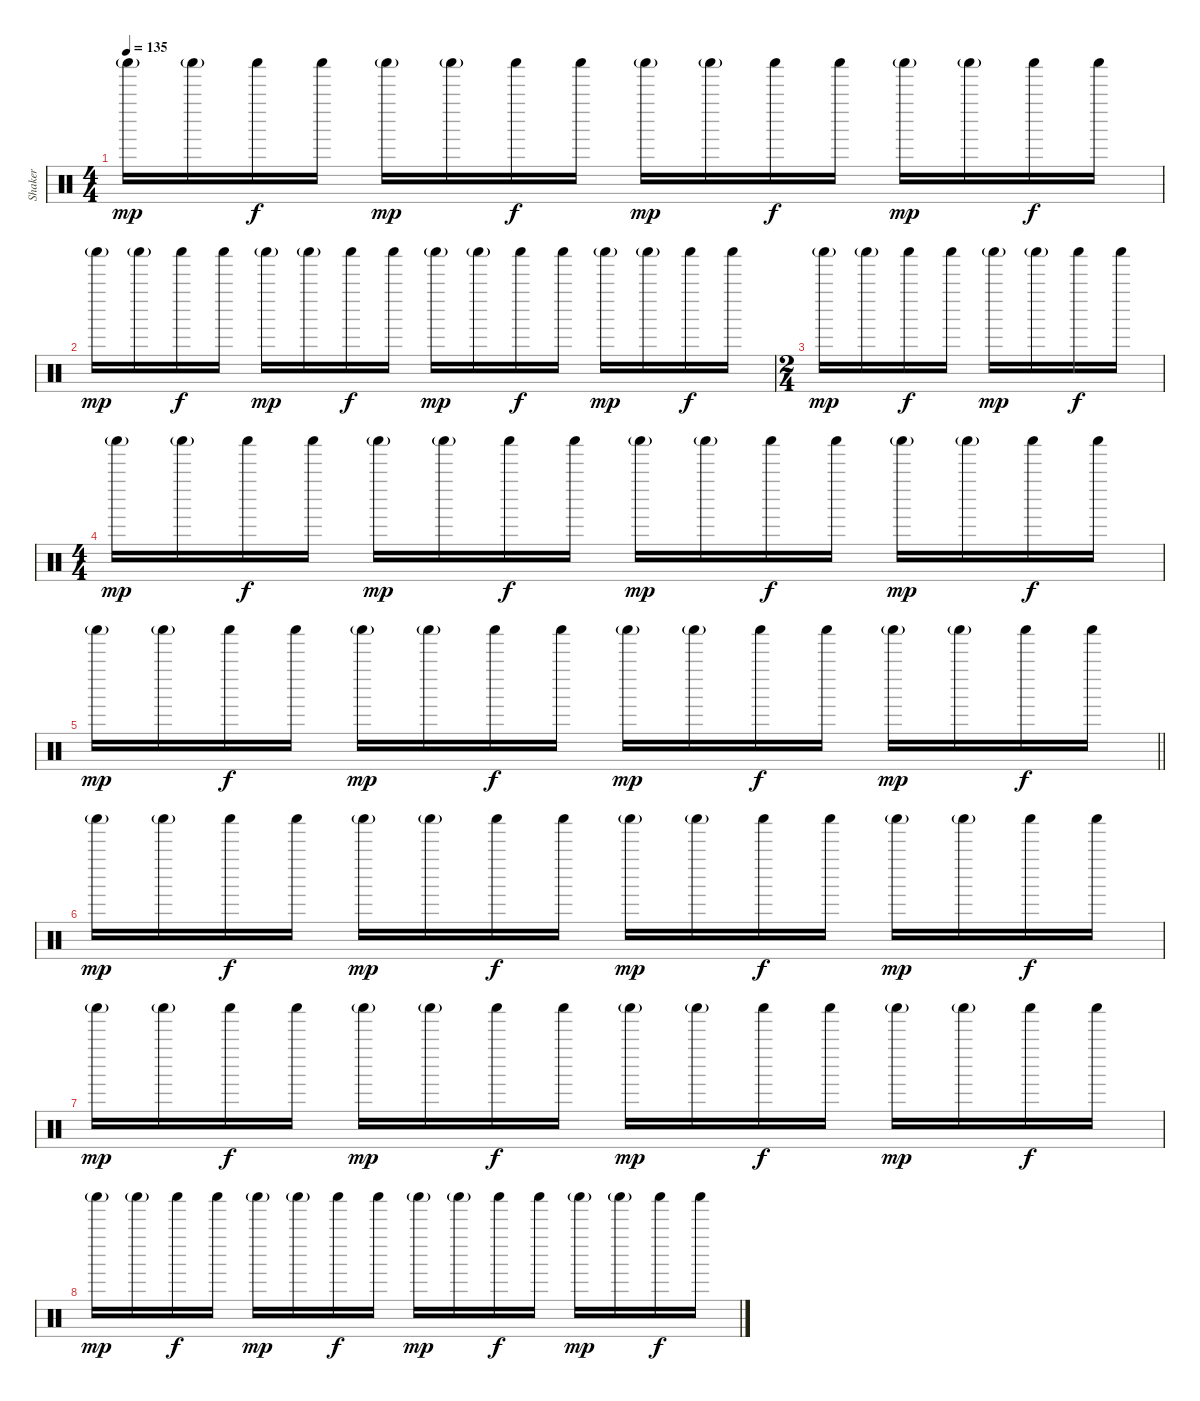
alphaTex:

\track ("Shaker" "Shaker") {instrument percussion}
\staff {score}
\articulation defaults
\ts (4 4)
\tempo 135
\clef neutral
\ks c "Shaker (hit)"{g}.16{dy mp} "Shaker (hit)"{g}.16 "Shaker (hit)".16{dy f} "Shaker (hit)".16 "Shaker (hit)"{g}.16{dy mp} "Shaker (hit)"{g}.16 "Shaker (hit)".16{dy f} "Shaker (hit)".16 "Shaker (hit)"{g}.16{dy mp} "Shaker (hit)"{g}.16 "Shaker (hit)".16{dy f} "Shaker (hit)".16 "Shaker (hit)"{g}.16{dy mp} "Shaker (hit)"{g}.16 "Shaker (hit)".16{dy f} "Shaker (hit)".16
|
"Shaker (hit)"{g}.16{dy mp} "Shaker (hit)"{g}.16 "Shaker (hit)".16{dy f} "Shaker (hit)".16 "Shaker (hit)"{g}.16{dy mp} "Shaker (hit)"{g}.16 "Shaker (hit)".16{dy f} "Shaker (hit)".16 "Shaker (hit)"{g}.16{dy mp} "Shaker (hit)"{g}.16 "Shaker (hit)".16{dy f} "Shaker (hit)".16 "Shaker (hit)"{g}.16{dy mp} "Shaker (hit)"{g}.16 "Shaker (hit)".16{dy f} "Shaker (hit)".16 |
\ts (2 4)
"Shaker (hit)"{g}.16{dy mp} "Shaker (hit)"{g}.16 "Shaker (hit)".16{dy f} "Shaker (hit)".16 "Shaker (hit)"{g}.16{dy mp} "Shaker (hit)"{g}.16 "Shaker (hit)".16{dy f} "Shaker (hit)".16 |
\ts (4 4)
"Shaker (hit)"{g}.16{dy mp} "Shaker (hit)"{g}.16 "Shaker (hit)".16{dy f} "Shaker (hit)".16 "Shaker (hit)"{g}.16{dy mp} "Shaker (hit)"{g}.16 "Shaker (hit)".16{dy f} "Shaker (hit)".16 "Shaker (hit)"{g}.16{dy mp} "Shaker (hit)"{g}.16 "Shaker (hit)".16{dy f} "Shaker (hit)".16 "Shaker (hit)"{g}.16{dy mp} "Shaker (hit)"{g}.16 "Shaker (hit)".16{dy f} "Shaker (hit)".16 |
\barLineRight lightlight "Shaker (hit)"{g}.16{dy mp} "Shaker (hit)"{g}.16 "Shaker (hit)".16{dy f} "Shaker (hit)".16 "Shaker (hit)"{g}.16{dy mp} "Shaker (hit)"{g}.16 "Shaker (hit)".16{dy f} "Shaker (hit)".16 "Shaker (hit)"{g}.16{dy mp} "Shaker (hit)"{g}.16 "Shaker (hit)".16{dy f} "Shaker (hit)".16 "Shaker (hit)"{g}.16{dy mp} "Shaker (hit)"{g}.16 "Shaker (hit)".16{dy f} "Shaker (hit)".16
|
"Shaker (hit)"{g}.16{dy mp} "Shaker (hit)"{g}.16 "Shaker (hit)".16{dy f} "Shaker (hit)".16 "Shaker (hit)"{g}.16{dy mp} "Shaker (hit)"{g}.16 "Shaker (hit)".16{dy f} "Shaker (hit)".16 "Shaker (hit)"{g}.16{dy mp} "Shaker (hit)"{g}.16 "Shaker (hit)".16{dy f} "Shaker (hit)".16 "Shaker (hit)"{g}.16{dy mp} "Shaker (hit)"{g}.16 "Shaker (hit)".16{dy f} "Shaker (hit)".16 |
"Shaker (hit)"{g}.16{dy mp} "Shaker (hit)"{g}.16 "Shaker (hit)".16{dy f} "Shaker (hit)".16 "Shaker (hit)"{g}.16{dy mp} "Shaker (hit)"{g}.16 "Shaker (hit)".16{dy f} "Shaker (hit)".16 "Shaker (hit)"{g}.16{dy mp} "Shaker (hit)"{g}.16 "Shaker (hit)".16{dy f} "Shaker (hit)".16 "Shaker (hit)"{g}.16{dy mp} "Shaker (hit)"{g}.16 "Shaker (hit)".16{dy f} "Shaker (hit)".16 |
"Shaker (hit)"{g}.16{dy mp} "Shaker (hit)"{g}.16 "Shaker (hit)".16{dy f} "Shaker (hit)".16 "Shaker (hit)"{g}.16{dy mp} "Shaker (hit)"{g}.16 "Shaker (hit)".16{dy f} "Shaker (hit)".16 "Shaker (hit)"{g}.16{dy mp} "Shaker (hit)"{g}.16 "Shaker (hit)".16{dy f} "Shaker (hit)".16 "Shaker (hit)"{g}.16{dy mp} "Shaker (hit)"{g}.16 "Shaker (hit)".16{dy f} "Shaker (hit)".16
